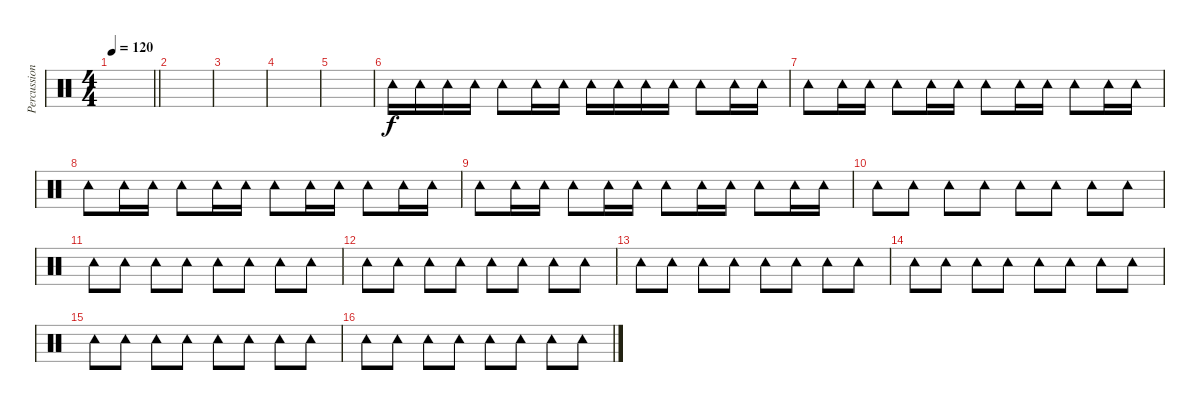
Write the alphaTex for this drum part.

\track ("Percussion" "Percussion") {instrument percussion}
\staff {score}
\articulation defaults
\ts (4 4)
\tempo 120
\clef neutral
\barLineRight lightlight
\ks c
|
|
|
|
|
"Tambourine (hit)".16 "Tambourine (hit)".16 "Tambourine (hit)".16 "Tambourine (hit)".16 "Tambourine (hit)".8 "Tambourine (hit)".16 "Tambourine (hit)".16 "Tambourine (hit)".16 "Tambourine (hit)".16 "Tambourine (hit)".16 "Tambourine (hit)".16 "Tambourine (hit)".8 "Tambourine (hit)".16 "Tambourine (hit)".16 |
"Tambourine (hit)".8 "Tambourine (hit)".16 "Tambourine (hit)".16 "Tambourine (hit)".8 "Tambourine (hit)".16 "Tambourine (hit)".16 "Tambourine (hit)".8 "Tambourine (hit)".16 "Tambourine (hit)".16 "Tambourine (hit)".8 "Tambourine (hit)".16 "Tambourine (hit)".16 |
"Tambourine (hit)".8 "Tambourine (hit)".16 "Tambourine (hit)".16 "Tambourine (hit)".8 "Tambourine (hit)".16 "Tambourine (hit)".16 "Tambourine (hit)".8 "Tambourine (hit)".16 "Tambourine (hit)".16 "Tambourine (hit)".8 "Tambourine (hit)".16 "Tambourine (hit)".16 |
"Tambourine (hit)".8 "Tambourine (hit)".16 "Tambourine (hit)".16 "Tambourine (hit)".8 "Tambourine (hit)".16 "Tambourine (hit)".16 "Tambourine (hit)".8 "Tambourine (hit)".16 "Tambourine (hit)".16 "Tambourine (hit)".8 "Tambourine (hit)".16 "Tambourine (hit)".16 |
"Tambourine (hit)".8 "Tambourine (hit)".8 "Tambourine (hit)".8 "Tambourine (hit)".8 "Tambourine (hit)".8 "Tambourine (hit)".8 "Tambourine (hit)".8 "Tambourine (hit)".8 |
"Tambourine (hit)".8 "Tambourine (hit)".8 "Tambourine (hit)".8 "Tambourine (hit)".8 "Tambourine (hit)".8 "Tambourine (hit)".8 "Tambourine (hit)".8 "Tambourine (hit)".8 |
"Tambourine (hit)".8 "Tambourine (hit)".8 "Tambourine (hit)".8 "Tambourine (hit)".8 "Tambourine (hit)".8 "Tambourine (hit)".8 "Tambourine (hit)".8 "Tambourine (hit)".8 |
"Tambourine (hit)".8 "Tambourine (hit)".8 "Tambourine (hit)".8 "Tambourine (hit)".8 "Tambourine (hit)".8 "Tambourine (hit)".8 "Tambourine (hit)".8 "Tambourine (hit)".8 |
"Tambourine (hit)".8 "Tambourine (hit)".8 "Tambourine (hit)".8 "Tambourine (hit)".8 "Tambourine (hit)".8 "Tambourine (hit)".8 "Tambourine (hit)".8 "Tambourine (hit)".8 |
"Tambourine (hit)".8 "Tambourine (hit)".8 "Tambourine (hit)".8 "Tambourine (hit)".8 "Tambourine (hit)".8 "Tambourine (hit)".8 "Tambourine (hit)".8 "Tambourine (hit)".8 |
"Tambourine (hit)".8 "Tambourine (hit)".8 "Tambourine (hit)".8 "Tambourine (hit)".8 "Tambourine (hit)".8 "Tambourine (hit)".8 "Tambourine (hit)".8 "Tambourine (hit)".8
